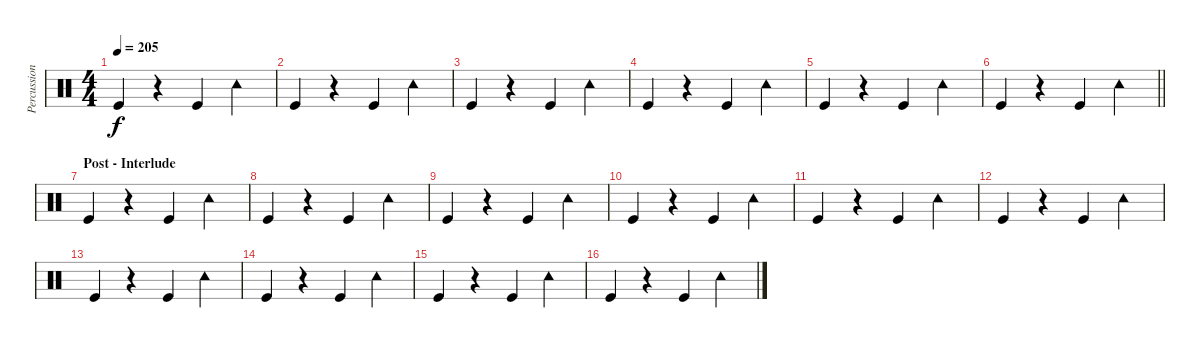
\track ("Percussion" "Percussion") {instrument percussion}
\staff {score}
\articulation defaults
\ts (4 4)
\tempo 205
\clef neutral
\ks c "Kick (hit)".4{dy f}
r.4 "Kick (hit)".4 "Tambourine (hit)".4 |
"Kick (hit)".4 r.4 "Kick (hit)".4 "Tambourine (hit)".4 |
"Kick (hit)".4 r.4 "Kick (hit)".4 "Tambourine (hit)".4 |
"Kick (hit)".4 r.4 "Kick (hit)".4 "Tambourine (hit)".4 |
"Kick (hit)".4 r.4 "Kick (hit)".4 "Tambourine (hit)".4 |
\barLineRight lightlight "Kick (hit)".4
r.4 "Kick (hit)".4 "Tambourine (hit)".4 |
\section ("" "Post - Interlude")
"Kick (hit)".4 r.4 "Kick (hit)".4 "Tambourine (hit)".4 |
"Kick (hit)".4 r.4 "Kick (hit)".4 "Tambourine (hit)".4 |
"Kick (hit)".4 r.4 "Kick (hit)".4 "Tambourine (hit)".4 |
"Kick (hit)".4 r.4 "Kick (hit)".4 "Tambourine (hit)".4 |
"Kick (hit)".4 r.4 "Kick (hit)".4 "Tambourine (hit)".4 |
"Kick (hit)".4 r.4 "Kick (hit)".4 "Tambourine (hit)".4 |
"Kick (hit)".4 r.4 "Kick (hit)".4 "Tambourine (hit)".4 |
"Kick (hit)".4 r.4 "Kick (hit)".4 "Tambourine (hit)".4 |
"Kick (hit)".4 r.4 "Kick (hit)".4 "Tambourine (hit)".4 |
"Kick (hit)".4 r.4 "Kick (hit)".4 "Tambourine (hit)".4
